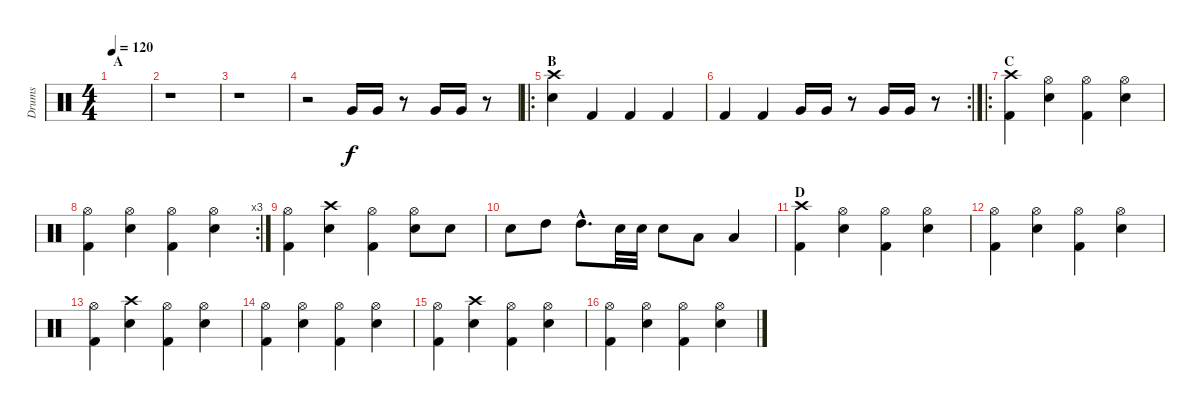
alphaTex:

\track ("Drums" "Drums") {instrument percussion}
\staff {score}
\articulation defaults
\ts (4 4)
\section ("" "A")
\tempo 120
\clef neutral
\ks c
|
r.1 |
r.1 |
r.2 "Very Low Tom (hit)".16 "Very Low Tom (hit)".16 r.8 "Very Low Tom (hit)".16 "Very Low Tom (hit)".16 r.8 |
\ro
\section ("" "B")
("Crash high (hit)" "Electric Snare (hit)").4 "Kick (hit) 2".4 "Kick (hit) 2".4 "Kick (hit) 2".4 |
\rc 2 "Kick (hit) 2".4 "Kick (hit) 2".4 "Very Low Tom (hit)".16 "Very Low Tom (hit)".16
r.8 "Very Low Tom (hit)".16 "Very Low Tom (hit)".16 r.8 |
\ro
\section ("" "C")
("Crash high (hit)" "Kick (hit) 2").4 ("Hi-Hat (open)" "Electric Snare (hit)").4 ("Hi-Hat (open)" "Kick (hit) 2").4 ("Hi-Hat (open)" "Electric Snare (hit)").4 |
\rc 3
("Hi-Hat (open)" "Kick (hit) 2").4 ("Hi-Hat (open)" "Electric Snare (hit)").4 ("Hi-Hat (open)" "Kick (hit) 2").4 ("Hi-Hat (open)" "Electric Snare (hit)").4 |
("Hi-Hat (open)" "Kick (hit) 2").4 ("Crash high (hit)" "Electric Snare (hit)").4 ("Hi-Hat (open)" "Kick (hit) 2").4 ("Hi-Hat (open)" "Electric Snare (hit)").8 "Electric Snare (hit)".8 |
"Electric Snare (hit)".8 "High Tom (hit)".8 "High Tom (hit)"{hac}.8{d} "Electric Snare (hit)".32 "Electric Snare (hit)".32 "Electric Snare (hit)".8 "Low Floor Tom (hit)".8 "Low Floor Tom (hit)".4 |
\section ("" "D")
("Crash high (hit)" "Kick (hit) 2").4 ("Hi-Hat (open)" "Electric Snare (hit)").4 ("Hi-Hat (open)" "Kick (hit) 2").4 ("Hi-Hat (open)" "Electric Snare (hit)").4 |
("Hi-Hat (open)" "Kick (hit) 2").4 ("Hi-Hat (open)" "Electric Snare (hit)").4 ("Hi-Hat (open)" "Kick (hit) 2").4 ("Hi-Hat (open)" "Electric Snare (hit)").4 |
("Hi-Hat (open)" "Kick (hit) 2").4 ("Crash high (hit)" "Electric Snare (hit)").4 ("Hi-Hat (open)" "Kick (hit) 2").4 ("Hi-Hat (open)" "Electric Snare (hit)").4 |
("Hi-Hat (open)" "Kick (hit) 2").4 ("Hi-Hat (open)" "Electric Snare (hit)").4 ("Hi-Hat (open)" "Kick (hit) 2").4 ("Hi-Hat (open)" "Electric Snare (hit)").4 |
("Hi-Hat (open)" "Kick (hit) 2").4 ("Crash high (hit)" "Electric Snare (hit)").4 ("Hi-Hat (open)" "Kick (hit) 2").4 ("Hi-Hat (open)" "Electric Snare (hit)").4 |
("Hi-Hat (open)" "Kick (hit) 2").4 ("Hi-Hat (open)" "Electric Snare (hit)").4 ("Hi-Hat (open)" "Kick (hit) 2").4 ("Hi-Hat (open)" "Electric Snare (hit)").4
